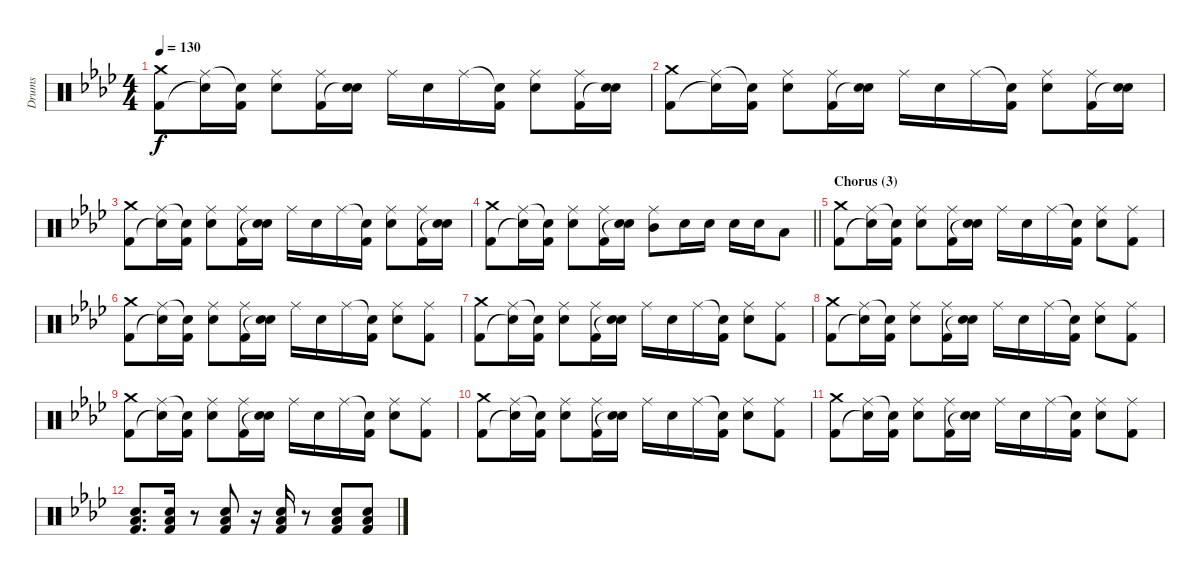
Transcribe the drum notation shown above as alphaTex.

\track ("Drums" "Drums") {instrument percussion}
\staff {score}
\articulation defaults
\ts (4 4)
\tempo 130
\clef neutral
\ks fminor
("Crash medium (hit)" "Kick (hit) 2").8{dy f} ("Ride (middle)" "Snare (hit)"{t}).16 ("Snare (hit)"{t} "Kick (hit) 2").16 ("Ride (middle)" "Electric Snare (hit)").8 ("Ride (middle)" "Kick (hit) 2").16 ("Electric Snare (hit)" "Snare (hit)"{t}).16 "Ride (middle)".16 "Electric Snare (hit)".16 "Ride (middle)".16 ("Snare (hit)"{t} "Kick (hit) 2").16 ("Ride (middle)" "Electric Snare (hit)").8 ("Ride (middle)" "Kick (hit) 2").16 ("Electric Snare (hit)" "Snare (hit)"{t}).16 |
("Crash medium (hit)" "Kick (hit) 2").8 ("Ride (middle)" "Snare (hit)"{t}).16 ("Snare (hit)"{t} "Kick (hit) 2").16 ("Ride (middle)" "Electric Snare (hit)").8 ("Ride (middle)" "Kick (hit) 2").16 ("Electric Snare (hit)" "Snare (hit)"{t}).16 "Ride (middle)".16 "Electric Snare (hit)".16 "Ride (middle)".16 ("Snare (hit)"{t} "Kick (hit) 2").16 ("Ride (middle)" "Electric Snare (hit)").8 ("Ride (middle)" "Kick (hit) 2").16 ("Electric Snare (hit)" "Snare (hit)"{t}).16 |
("Crash medium (hit)" "Kick (hit) 2").8 ("Ride (middle)" "Snare (hit)"{t}).16 ("Snare (hit)"{t} "Kick (hit) 2").16 ("Ride (middle)" "Electric Snare (hit)").8 ("Ride (middle)" "Kick (hit) 2").16 ("Electric Snare (hit)" "Snare (hit)"{t}).16 "Ride (middle)".16 "Electric Snare (hit)".16 "Ride (middle)".16 ("Snare (hit)"{t} "Kick (hit) 2").16 ("Ride (middle)" "Electric Snare (hit)").8 ("Ride (middle)" "Kick (hit) 2").16 ("Electric Snare (hit)" "Snare (hit)"{t}).16 |
\barLineRight lightlight
("Crash medium (hit)" "Kick (hit) 2").8 ("Ride (middle)" "Snare (hit)"{t}).16 ("Snare (hit)"{t} "Kick (hit) 2").16 ("Ride (middle)" "Electric Snare (hit)").8 ("Ride (middle)" "Kick (hit) 2").16 ("Electric Snare (hit)" "Snare (hit)"{t}).16 ("Ride (middle)" "Mid Tom (hit)").8 "Electric Snare (hit)".16 "Electric Snare (hit)".16 "Electric Snare (hit)".16 "Electric Snare (hit)".16 "Low Floor Tom (hit)".8 |
\section ("" "Chorus (3)")
("Crash medium (hit)" "Kick (hit) 2").8 ("Ride (middle)" "Snare (hit)"{t}).16 ("Snare (hit)"{t} "Kick (hit) 2").16 ("Ride (middle)" "Electric Snare (hit)").8 ("Ride (middle)" "Kick (hit) 2").16 ("Electric Snare (hit)" "Snare (hit)"{t}).16 "Ride (middle)".16 "Electric Snare (hit)".16 "Ride (middle)".16 ("Snare (hit)"{t} "Kick (hit) 2").16 ("Ride (middle)" "Electric Snare (hit)").8 ("Ride (middle)" "Kick (hit) 2").8 |
("Crash medium (hit)" "Kick (hit) 2").8 ("Ride (middle)" "Snare (hit)"{t}).16 ("Snare (hit)"{t} "Kick (hit) 2").16 ("Ride (middle)" "Electric Snare (hit)").8 ("Ride (middle)" "Kick (hit) 2").16 ("Electric Snare (hit)" "Snare (hit)"{t}).16 "Ride (middle)".16 "Electric Snare (hit)".16 "Ride (middle)".16 ("Snare (hit)"{t} "Kick (hit) 2").16 ("Ride (middle)" "Electric Snare (hit)").8 ("Ride (middle)" "Kick (hit) 2").8 |
("Crash medium (hit)" "Kick (hit) 2").8 ("Ride (middle)" "Snare (hit)"{t}).16 ("Snare (hit)"{t} "Kick (hit) 2").16 ("Ride (middle)" "Electric Snare (hit)").8 ("Ride (middle)" "Kick (hit) 2").16 ("Electric Snare (hit)" "Snare (hit)"{t}).16 "Ride (middle)".16 "Electric Snare (hit)".16 "Ride (middle)".16 ("Snare (hit)"{t} "Kick (hit) 2").16 ("Ride (middle)" "Electric Snare (hit)").8 ("Ride (middle)" "Kick (hit) 2").8 |
("Crash medium (hit)" "Kick (hit) 2").8 ("Ride (middle)" "Snare (hit)"{t}).16 ("Snare (hit)"{t} "Kick (hit) 2").16 ("Ride (middle)" "Electric Snare (hit)").8 ("Ride (middle)" "Kick (hit) 2").16 ("Electric Snare (hit)" "Snare (hit)"{t}).16 "Ride (middle)".16 "Electric Snare (hit)".16 "Ride (middle)".16 ("Snare (hit)"{t} "Kick (hit) 2").16 ("Ride (middle)" "Electric Snare (hit)").8 ("Ride (middle)" "Kick (hit) 2").8 |
("Crash medium (hit)" "Kick (hit) 2").8 ("Ride (middle)" "Snare (hit)"{t}).16 ("Snare (hit)"{t} "Kick (hit) 2").16 ("Ride (middle)" "Electric Snare (hit)").8 ("Ride (middle)" "Kick (hit) 2").16 ("Electric Snare (hit)" "Snare (hit)"{t}).16 "Ride (middle)".16 "Electric Snare (hit)".16 "Ride (middle)".16 ("Snare (hit)"{t} "Kick (hit) 2").16 ("Ride (middle)" "Electric Snare (hit)").8 ("Ride (middle)" "Kick (hit) 2").8 |
("Crash medium (hit)" "Kick (hit) 2").8 ("Ride (middle)" "Snare (hit)"{t}).16 ("Snare (hit)"{t} "Kick (hit) 2").16 ("Ride (middle)" "Electric Snare (hit)").8 ("Ride (middle)" "Kick (hit) 2").16 ("Electric Snare (hit)" "Snare (hit)"{t}).16 "Ride (middle)".16 "Electric Snare (hit)".16 "Ride (middle)".16 ("Snare (hit)"{t} "Kick (hit) 2").16 ("Ride (middle)" "Electric Snare (hit)").8 ("Ride (middle)" "Kick (hit) 2").8 |
("Crash medium (hit)" "Kick (hit) 2").8 ("Ride (middle)" "Snare (hit)"{t}).16 ("Snare (hit)"{t} "Kick (hit) 2").16 ("Ride (middle)" "Electric Snare (hit)").8 ("Ride (middle)" "Kick (hit) 2").16 ("Electric Snare (hit)" "Snare (hit)"{t}).16 "Ride (middle)".16 "Electric Snare (hit)".16 "Ride (middle)".16 ("Snare (hit)"{t} "Kick (hit) 2").16 ("Ride (middle)" "Electric Snare (hit)").8 ("Ride (middle)" "Kick (hit) 2").8 |
("Electric Snare (hit)" "Low Floor Tom (hit)" "Kick (hit) 2").8{d} ("Electric Snare (hit)" "Low Floor Tom (hit)" "Kick (hit) 2").16 r.8 ("Electric Snare (hit)" "Low Floor Tom (hit)" "Kick (hit) 2").8 r.16 ("Electric Snare (hit)" "Low Floor Tom (hit)" "Kick (hit) 2").16 r.8 ("Electric Snare (hit)" "Low Floor Tom (hit)" "Kick (hit) 2").8 ("Electric Snare (hit)" "Low Floor Tom (hit)" "Kick (hit) 2").8
